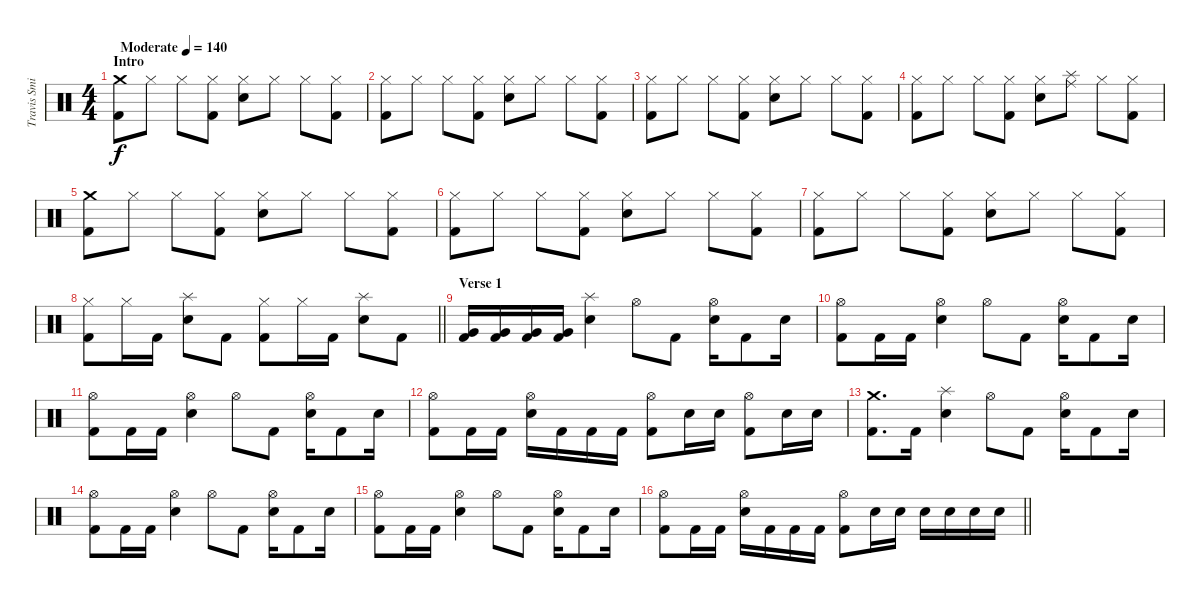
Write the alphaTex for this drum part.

\track ("Travis Smith" "Travis Smi") {instrument percussion}
\staff {score}
\articulation defaults
\ts (4 4)
\section ("" "Intro")
\tempo (140 "Moderate")
\clef neutral
\ks c
("Crash medium (hit)" "Kick (hit) 2").8{dy f} "Hi-Hat (closed)".8 "Hi-Hat (closed)".8 ("Hi-Hat (closed)" "Kick (hit) 2").8 ("Hi-Hat (closed)" "Electric Snare (hit)").8 "Hi-Hat (closed)".8 "Hi-Hat (closed)".8 ("Hi-Hat (closed)" "Kick (hit) 2").8 |
("Hi-Hat (closed)" "Kick (hit) 2").8 "Hi-Hat (closed)".8 "Hi-Hat (closed)".8 ("Hi-Hat (closed)" "Kick (hit) 2").8 ("Hi-Hat (closed)" "Electric Snare (hit)").8 "Hi-Hat (closed)".8 "Hi-Hat (closed)".8 ("Hi-Hat (closed)" "Kick (hit) 2").8 |
("Hi-Hat (closed)" "Kick (hit) 2").8 "Hi-Hat (closed)".8 "Hi-Hat (closed)".8 ("Hi-Hat (closed)" "Kick (hit) 2").8 ("Hi-Hat (closed)" "Electric Snare (hit)").8 "Hi-Hat (closed)".8 "Hi-Hat (closed)".8 ("Hi-Hat (closed)" "Kick (hit) 2").8 |
("Hi-Hat (closed)" "Kick (hit) 2").8 "Hi-Hat (closed)".8 "Hi-Hat (closed)".8 ("Hi-Hat (closed)" "Kick (hit) 2").8 ("Hi-Hat (closed)" "Electric Snare (hit)").8 ("Ride (middle)" "Splash (hit)").8 "Hi-Hat (closed)".8 ("Hi-Hat (closed)" "Kick (hit) 2").8 |
("Crash medium (hit)" "Kick (hit) 2").8 "Hi-Hat (closed)".8 "Hi-Hat (closed)".8 ("Hi-Hat (closed)" "Kick (hit) 2").8 ("Hi-Hat (closed)" "Electric Snare (hit)").8 "Hi-Hat (closed)".8 "Hi-Hat (closed)".8 ("Hi-Hat (closed)" "Kick (hit) 2").8 |
("Hi-Hat (closed)" "Kick (hit) 2").8 "Hi-Hat (closed)".8 "Hi-Hat (closed)".8 ("Hi-Hat (closed)" "Kick (hit) 2").8 ("Hi-Hat (closed)" "Electric Snare (hit)").8 "Hi-Hat (closed)".8 "Hi-Hat (closed)".8 ("Hi-Hat (closed)" "Kick (hit) 2").8 |
("Hi-Hat (closed)" "Kick (hit) 2").8 "Hi-Hat (closed)".8 "Hi-Hat (closed)".8 ("Hi-Hat (closed)" "Kick (hit) 2").8 ("Hi-Hat (closed)" "Electric Snare (hit)").8 "Hi-Hat (closed)".8 "Hi-Hat (closed)".8 ("Hi-Hat (closed)" "Kick (hit) 2").8 |
\barLineRight lightlight
("Hi-Hat (closed)" "Kick (hit) 2").8 "Hi-Hat (closed)".16 "Kick (hit) 2".16 ("Splash (hit)" "Electric Snare (hit)").8 "Kick (hit) 2".8 ("Hi-Hat (closed)" "Kick (hit) 2").8 "Hi-Hat (closed)".16 "Kick (hit) 2".16 ("Splash (hit)" "Electric Snare (hit)").8 "Kick (hit) 2".8 |
\section ("" "Verse 1")
("Very Low Tom (hit)" "Kick (hit) 2").16 ("Very Low Tom (hit)" "Kick (hit) 2").16 ("Very Low Tom (hit)" "Kick (hit) 2").16 ("Very Low Tom (hit)" "Kick (hit) 2").16 ("Splash (hit)" "Electric Snare (hit)").4 "Hi-Hat (open)".8 "Kick (hit) 2".8 ("Hi-Hat (open)" "Electric Snare (hit)").16 "Kick (hit) 2".8 "Electric Snare (hit)".16 |
("Hi-Hat (open)" "Kick (hit) 2").8 "Kick (hit) 2".16 "Kick (hit) 2".16 ("Hi-Hat (open)" "Electric Snare (hit)").4 "Hi-Hat (open)".8 "Kick (hit) 2".8 ("Hi-Hat (open)" "Electric Snare (hit)").16 "Kick (hit) 2".8 "Electric Snare (hit)".16 |
("Hi-Hat (open)" "Kick (hit) 2").8 "Kick (hit) 2".16 "Kick (hit) 2".16 ("Hi-Hat (open)" "Electric Snare (hit)").4 "Hi-Hat (open)".8 "Kick (hit) 2".8 ("Hi-Hat (open)" "Electric Snare (hit)").16 "Kick (hit) 2".8 "Electric Snare (hit)".16 |
("Hi-Hat (open)" "Kick (hit) 2").8 "Kick (hit) 2".16 "Kick (hit) 2".16 ("Hi-Hat (open)" "Electric Snare (hit)").16 "Kick (hit) 2".16 "Kick (hit) 2".16 "Kick (hit) 2".16 ("Hi-Hat (open)" "Kick (hit) 2").8 "Electric Snare (hit)".16 "Electric Snare (hit)".16 ("Hi-Hat (open)" "Kick (hit) 2").8 "Electric Snare (hit)".16 "Electric Snare (hit)".16 |
("Crash medium (hit)" "Kick (hit) 2").8{d} "Kick (hit) 2".16 ("Splash (hit)" "Electric Snare (hit)").4 "Hi-Hat (open)".8 "Kick (hit) 2".8 ("Hi-Hat (open)" "Electric Snare (hit)").16 "Kick (hit) 2".8 "Electric Snare (hit)".16 |
("Hi-Hat (open)" "Kick (hit) 2").8 "Kick (hit) 2".16 "Kick (hit) 2".16 ("Hi-Hat (open)" "Electric Snare (hit)").4 "Hi-Hat (open)".8 "Kick (hit) 2".8 ("Hi-Hat (open)" "Electric Snare (hit)").16 "Kick (hit) 2".8 "Electric Snare (hit)".16 |
("Hi-Hat (open)" "Kick (hit) 2").8 "Kick (hit) 2".16 "Kick (hit) 2".16 ("Hi-Hat (open)" "Electric Snare (hit)").4 "Hi-Hat (open)".8 "Kick (hit) 2".8 ("Hi-Hat (open)" "Electric Snare (hit)").16 "Kick (hit) 2".8 "Electric Snare (hit)".16 |
\barLineRight lightlight
("Hi-Hat (open)" "Kick (hit) 2").8 "Kick (hit) 2".16 "Kick (hit) 2".16 ("Hi-Hat (open)" "Electric Snare (hit)").16 "Kick (hit) 2".16 "Kick (hit) 2".16 "Kick (hit) 2".16 ("Hi-Hat (open)" "Kick (hit) 2").8 "Electric Snare (hit)".16 "Electric Snare (hit)".16 "Electric Snare (hit)".16 "Electric Snare (hit)".16 "Electric Snare (hit)".16 "Electric Snare (hit)".16
